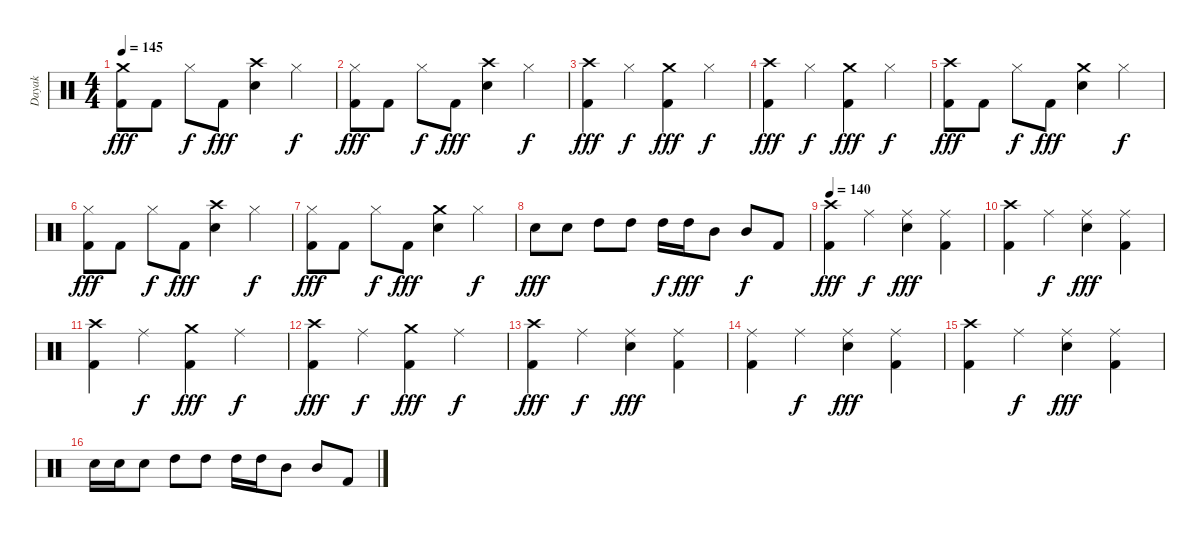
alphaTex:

\track ("Dayak" "Dayak") {instrument percussion}
\staff {score}
\articulation defaults
\ts (4 4)
\tempo 145
\clef neutral
\ks c
("Crash medium (hit)" "Kick (hit) 2").8{dy fff} "Kick (hit) 2".8 "Hi-Hat (closed)".8{dy f} "Kick (hit) 2".8{dy fff} ("Crash high (hit)" "Snare (hit) 2").4 "Hi-Hat (closed)".4{dy f} |
("Hi-Hat (closed)" "Kick (hit) 2").8{dy fff} "Kick (hit) 2".8 "Hi-Hat (closed)".8{dy f} "Kick (hit) 2".8{dy fff} ("Crash high (hit)" "Snare (hit) 2").4 "Hi-Hat (closed)".4{dy f} |
("Crash high (hit)" "Kick (hit) 2").4{dy fff} "Hi-Hat (closed)".4{dy f} ("Crash medium (hit)" "Kick (hit) 2").4{dy fff} "Hi-Hat (closed)".4{dy f} |
("Crash high (hit)" "Kick (hit) 2").4{dy fff} "Hi-Hat (closed)".4{dy f} ("Crash medium (hit)" "Kick (hit) 2").4{dy fff} "Hi-Hat (closed)".4{dy f} |
("Crash high (hit)" "Kick (hit) 2").8{dy fff} "Kick (hit) 2".8 "Hi-Hat (closed)".8{dy f} "Kick (hit) 2".8{dy fff} ("Crash medium (hit)" "Snare (hit) 2").4 "Hi-Hat (closed)".4{dy f} |
("Hi-Hat (closed)" "Kick (hit) 2").8{dy fff} "Kick (hit) 2".8 "Hi-Hat (closed)".8{dy f} "Kick (hit) 2".8{dy fff} ("Crash high (hit)" "Snare (hit) 2").4 "Hi-Hat (closed)".4{dy f} |
("Hi-Hat (closed)" "Kick (hit) 2").8{dy fff} "Kick (hit) 2".8 "Hi-Hat (closed)".8{dy f} "Kick (hit) 2".8{dy fff} ("Crash medium (hit)" "Snare (hit) 2").4 "Hi-Hat (closed)".4{dy f} |
"Snare (hit) 2".8{dy fff} "Snare (hit) 2".8 "High Tom (hit)".8 "High Tom (hit)".8 "High Tom (hit)".16{dy f} "High Tom (hit)".16{dy fff} "Mid Tom (hit)".8 "Mid Tom (hit)".8{dy f} "Kick (hit) 2".8 |
\tempo 140
("Crash high (hit)" "Kick (hit) 2").4{dy fff} "Ride (middle)".4{dy f} ("Ride (middle)" "Snare (hit) 2").4{dy fff} ("Ride (middle)" "Kick (hit) 2").4 |
("Crash high (hit)" "Kick (hit) 2").4 "Ride (middle)".4{dy f} ("Ride (middle)" "Snare (hit) 2").4{dy fff} ("Ride (middle)" "Kick (hit) 2").4 |
("Crash high (hit)" "Kick (hit) 2").4 "Ride (middle)".4{dy f} ("Crash medium (hit)" "Kick (hit) 2").4{dy fff} "Ride (middle)".4{dy f} |
("Crash high (hit)" "Kick (hit) 2").4{dy fff} "Ride (middle)".4{dy f} ("Crash medium (hit)" "Kick (hit) 2").4{dy fff} "Ride (middle)".4{dy f} |
("Crash high (hit)" "Kick (hit) 2").4{dy fff} "Ride (middle)".4{dy f} ("Ride (middle)" "Snare (hit) 2").4{dy fff} ("Ride (middle)" "Kick (hit) 2").4 |
("Ride (middle)" "Kick (hit) 2").4 "Ride (middle)".4{dy f} ("Ride (middle)" "Snare (hit) 2").4{dy fff} ("Ride (middle)" "Kick (hit) 2").4 |
("Crash high (hit)" "Kick (hit) 2").4 "Ride (middle)".4{dy f} ("Ride (middle)" "Snare (hit) 2").4{dy fff} ("Ride (middle)" "Kick (hit) 2").4 |
"Snare (hit) 2".16 "Snare (hit) 2".16 "Snare (hit) 2".8 "High Tom (hit)".8 "High Tom (hit)".8 "High Tom (hit)".16 "High Tom (hit)".16 "Mid Tom (hit)".8 "Mid Tom (hit)".8 "Kick (hit) 2".8
